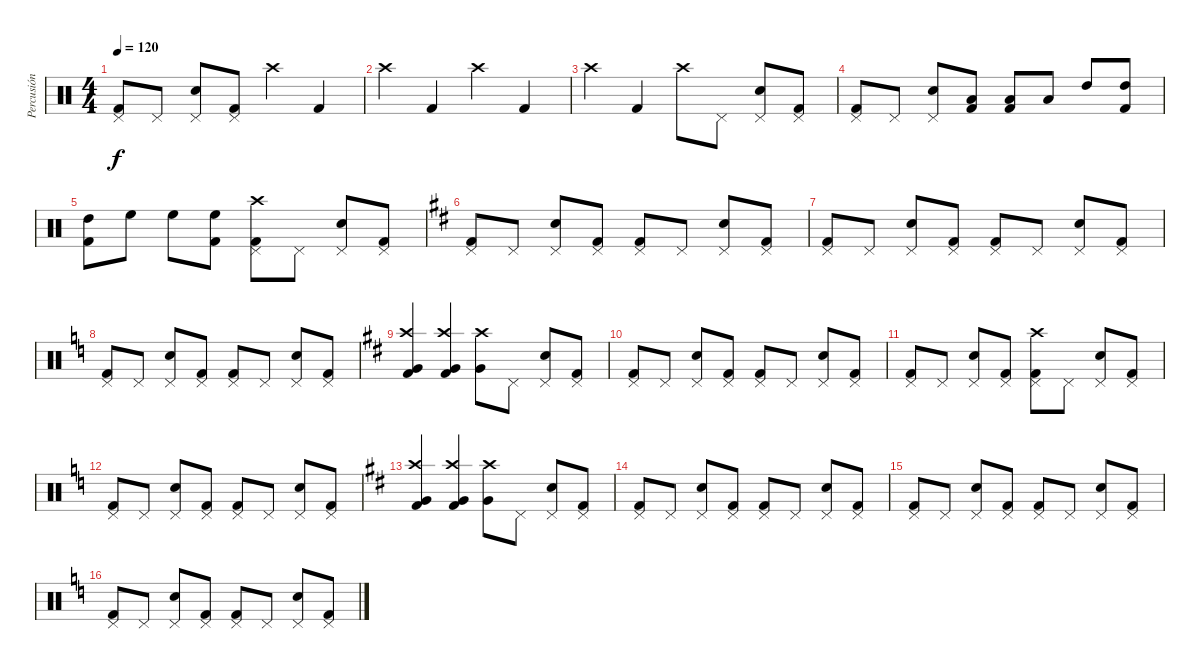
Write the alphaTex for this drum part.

\track ("Percusión" "Percusión") {instrument percussion}
\staff {score}
\articulation defaults
\ts (4 4)
\tempo 120
\clef neutral
\ks c
("Pedal Hi-Hat (hit)" "Kick (hit) 2").8{dy f} "Pedal Hi-Hat (hit)".8 ("Pedal Hi-Hat (hit)" "Electric Snare (hit)").8 ("Pedal Hi-Hat (hit)" "Kick (hit) 2").8 "Crash high (hit)".4 "Kick (hit) 2".4 |
"Crash high (hit)".4 "Kick (hit) 2".4 "Crash high (hit)".4 "Kick (hit) 2".4 |
"Crash high (hit)".4 "Kick (hit) 2".4 "Crash high (hit)".8 "Pedal Hi-Hat (hit)".8 ("Pedal Hi-Hat (hit)" "Electric Snare (hit)").8 ("Pedal Hi-Hat (hit)" "Kick (hit) 2").8 |
("Pedal Hi-Hat (hit)" "Kick (hit) 2").8 "Pedal Hi-Hat (hit)".8 ("Pedal Hi-Hat (hit)" "Electric Snare (hit)").8 ("Low Tom (hit)" "Kick (hit) 2").8 ("Low Tom (hit)" "Kick (hit) 2").8 "Low Tom (hit)".8 "High Tom (hit)".8 ("High Tom (hit)" "Kick (hit) 2").8 |
("High Tom (hit)" "Kick (hit) 2").8 "High Floor Tom (hit)".8 "High Floor Tom (hit)".8 ("High Floor Tom (hit)" "Kick (hit) 2").8 ("Pedal Hi-Hat (hit)" "Crash high (hit)" "Kick (hit) 2").8 "Pedal Hi-Hat (hit)".8 ("Pedal Hi-Hat (hit)" "Electric Snare (hit)").8 ("Pedal Hi-Hat (hit)" "Kick (hit) 2").8 |
\ks d
("Pedal Hi-Hat (hit)" "Kick (hit) 2").8 "Pedal Hi-Hat (hit)".8 ("Pedal Hi-Hat (hit)" "Electric Snare (hit)").8 ("Pedal Hi-Hat (hit)" "Kick (hit) 2").8 ("Pedal Hi-Hat (hit)" "Kick (hit) 2").8 "Pedal Hi-Hat (hit)".8 ("Pedal Hi-Hat (hit)" "Electric Snare (hit)").8 ("Pedal Hi-Hat (hit)" "Kick (hit) 2").8 |
("Pedal Hi-Hat (hit)" "Kick (hit) 2").8 "Pedal Hi-Hat (hit)".8 ("Pedal Hi-Hat (hit)" "Electric Snare (hit)").8 ("Pedal Hi-Hat (hit)" "Kick (hit) 2").8 ("Pedal Hi-Hat (hit)" "Kick (hit) 2").8 "Pedal Hi-Hat (hit)".8 ("Pedal Hi-Hat (hit)" "Electric Snare (hit)").8 ("Pedal Hi-Hat (hit)" "Kick (hit) 2").8 |
\ks c
("Pedal Hi-Hat (hit)" "Kick (hit) 2").8 "Pedal Hi-Hat (hit)".8 ("Pedal Hi-Hat (hit)" "Electric Snare (hit)").8 ("Pedal Hi-Hat (hit)" "Kick (hit) 2").8 ("Pedal Hi-Hat (hit)" "Kick (hit) 2").8 "Pedal Hi-Hat (hit)".8 ("Pedal Hi-Hat (hit)" "Electric Snare (hit)").8 ("Pedal Hi-Hat (hit)" "Kick (hit) 2").8 |
\ks d
("Very Low Tom (hit)" "Crash high (hit)" "Kick (hit) 2").4 ("Very Low Tom (hit)" "Crash high (hit)" "Kick (hit) 2").4 ("Very Low Tom (hit)" "Crash high (hit)").8 "Pedal Hi-Hat (hit)".8 ("Pedal Hi-Hat (hit)" "Electric Snare (hit)").8 ("Pedal Hi-Hat (hit)" "Kick (hit) 2").8 |
("Pedal Hi-Hat (hit)" "Kick (hit) 2").8 "Pedal Hi-Hat (hit)".8 ("Pedal Hi-Hat (hit)" "Electric Snare (hit)").8 ("Pedal Hi-Hat (hit)" "Kick (hit) 2").8 ("Pedal Hi-Hat (hit)" "Kick (hit) 2").8 "Pedal Hi-Hat (hit)".8 ("Pedal Hi-Hat (hit)" "Electric Snare (hit)").8 ("Pedal Hi-Hat (hit)" "Kick (hit) 2").8 |
("Pedal Hi-Hat (hit)" "Kick (hit) 2").8 "Pedal Hi-Hat (hit)".8 ("Pedal Hi-Hat (hit)" "Electric Snare (hit)").8 ("Pedal Hi-Hat (hit)" "Kick (hit) 2").8 ("Pedal Hi-Hat (hit)" "Crash high (hit)" "Kick (hit) 2").8 "Pedal Hi-Hat (hit)".8 ("Pedal Hi-Hat (hit)" "Electric Snare (hit)").8 ("Pedal Hi-Hat (hit)" "Kick (hit) 2").8 |
\ks c
("Pedal Hi-Hat (hit)" "Kick (hit) 2").8 "Pedal Hi-Hat (hit)".8 ("Pedal Hi-Hat (hit)" "Electric Snare (hit)").8 ("Pedal Hi-Hat (hit)" "Kick (hit) 2").8 ("Pedal Hi-Hat (hit)" "Kick (hit) 2").8 "Pedal Hi-Hat (hit)".8 ("Pedal Hi-Hat (hit)" "Electric Snare (hit)").8 ("Pedal Hi-Hat (hit)" "Kick (hit) 2").8 |
\ks d
("Very Low Tom (hit)" "Crash high (hit)" "Kick (hit) 2").4 ("Very Low Tom (hit)" "Crash high (hit)" "Kick (hit) 2").4 ("Very Low Tom (hit)" "Crash high (hit)").8 "Pedal Hi-Hat (hit)".8 ("Pedal Hi-Hat (hit)" "Electric Snare (hit)").8 ("Pedal Hi-Hat (hit)" "Kick (hit) 2").8 |
("Pedal Hi-Hat (hit)" "Kick (hit) 2").8 "Pedal Hi-Hat (hit)".8 ("Pedal Hi-Hat (hit)" "Electric Snare (hit)").8 ("Pedal Hi-Hat (hit)" "Kick (hit) 2").8 ("Pedal Hi-Hat (hit)" "Kick (hit) 2").8 "Pedal Hi-Hat (hit)".8 ("Pedal Hi-Hat (hit)" "Electric Snare (hit)").8 ("Pedal Hi-Hat (hit)" "Kick (hit) 2").8 |
("Pedal Hi-Hat (hit)" "Kick (hit) 2").8 "Pedal Hi-Hat (hit)".8 ("Pedal Hi-Hat (hit)" "Electric Snare (hit)").8 ("Pedal Hi-Hat (hit)" "Kick (hit) 2").8 ("Pedal Hi-Hat (hit)" "Kick (hit) 2").8 "Pedal Hi-Hat (hit)".8 ("Pedal Hi-Hat (hit)" "Electric Snare (hit)").8 ("Pedal Hi-Hat (hit)" "Kick (hit) 2").8 |
\ks c
("Pedal Hi-Hat (hit)" "Kick (hit) 2").8 "Pedal Hi-Hat (hit)".8 ("Pedal Hi-Hat (hit)" "Electric Snare (hit)").8 ("Pedal Hi-Hat (hit)" "Kick (hit) 2").8 ("Pedal Hi-Hat (hit)" "Kick (hit) 2").8 "Pedal Hi-Hat (hit)".8 ("Pedal Hi-Hat (hit)" "Electric Snare (hit)").8 ("Pedal Hi-Hat (hit)" "Kick (hit) 2").8
